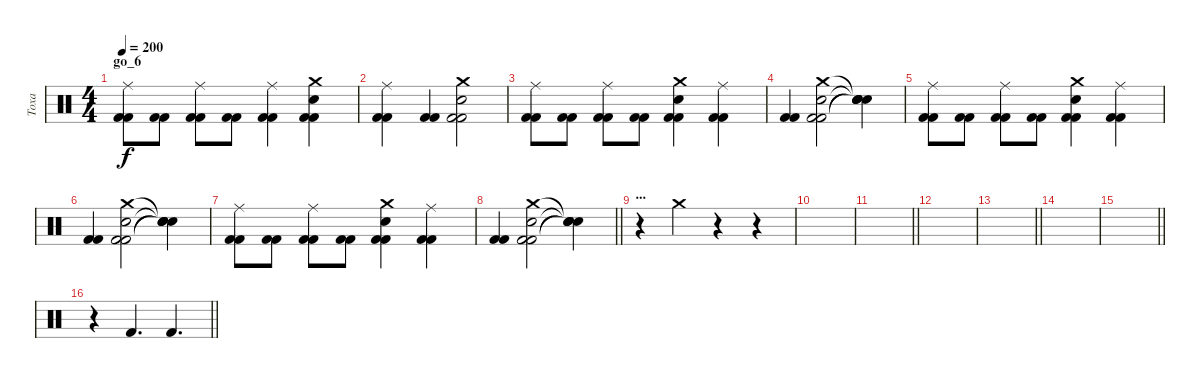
\track ("Toxa" "Toxa") {instrument percussion}
\staff {score}
\articulation defaults
\ts (4 4)
\section ("" "go_6")
\tempo 200
\clef neutral
\ks c
("Kick (hit) 2" "Ride (middle)" "Kick (hit) 2").8{dy f} ("Kick (hit) 2" "Kick (hit) 2").8 ("Kick (hit) 2" "Ride (middle)" "Kick (hit) 2").8 ("Kick (hit) 2" "Kick (hit) 2").8 ("Kick (hit) 2" "Ride (middle)" "Kick (hit) 2").4 ("Kick (hit) 2" "Electric Snare (hit)" "Kick (hit) 2" "Crash medium (hit)").4 |
("Kick (hit) 2" "Ride (middle)" "Kick (hit) 2").4 ("Kick (hit) 2" "Kick (hit) 2").4 ("Crash medium (hit)" "Kick (hit) 2" "Electric Snare (hit)" "Kick (hit) 2").2 |
("Kick (hit) 2" "Ride (middle)" "Kick (hit) 2").8 ("Kick (hit) 2" "Kick (hit) 2").8 ("Ride (middle)" "Kick (hit) 2" "Kick (hit) 2").8 ("Kick (hit) 2" "Kick (hit) 2").8 ("Crash medium (hit)" "Kick (hit) 2" "Electric Snare (hit)" "Kick (hit) 2").4 ("Kick (hit) 2" "Ride (middle)" "Kick (hit) 2").4 |
("Kick (hit) 2" "Kick (hit) 2").4 ("Crash medium (hit)" "Kick (hit) 2" "Electric Snare (hit)" "Kick (hit) 2").2 ("Snare (hit)"{t} "Snare (hit)"{t} "Snare (hit)"{t} "Snare (hit)"{t}).4 |
("Kick (hit) 2" "Ride (middle)" "Kick (hit) 2").8 ("Kick (hit) 2" "Kick (hit) 2").8 ("Ride (middle)" "Kick (hit) 2" "Kick (hit) 2").8 ("Kick (hit) 2" "Kick (hit) 2").8 ("Crash medium (hit)" "Kick (hit) 2" "Electric Snare (hit)" "Kick (hit) 2").4 ("Kick (hit) 2" "Ride (middle)" "Kick (hit) 2").4 |
("Kick (hit) 2" "Kick (hit) 2").4 ("Crash medium (hit)" "Kick (hit) 2" "Electric Snare (hit)" "Kick (hit) 2").2 ("Snare (hit)"{t} "Snare (hit)"{t} "Snare (hit)"{t} "Snare (hit)"{t}).4 |
("Kick (hit) 2" "Ride (middle)" "Kick (hit) 2").8 ("Kick (hit) 2" "Kick (hit) 2").8 ("Ride (middle)" "Kick (hit) 2" "Kick (hit) 2").8 ("Kick (hit) 2" "Kick (hit) 2").8 ("Crash medium (hit)" "Kick (hit) 2" "Electric Snare (hit)" "Kick (hit) 2").4 ("Kick (hit) 2" "Ride (middle)" "Kick (hit) 2").4 |
\barLineRight lightlight
("Kick (hit) 2" "Kick (hit) 2").4 ("Crash medium (hit)" "Kick (hit) 2" "Electric Snare (hit)" "Kick (hit) 2").2 ("Snare (hit)"{t} "Snare (hit)"{t} "Snare (hit)"{t} "Snare (hit)"{t}).4 |
\section ("" "...")
r.4 "Crash medium (hit)".4 r.4 r.4 |
|
\barLineRight lightlight
|
|
\barLineRight lightlight
|
|
\barLineRight lightlight
|
\barLineRight lightlight
r.4 "Kick (hit) 2".4{d} "Kick (hit) 2".4{d}
